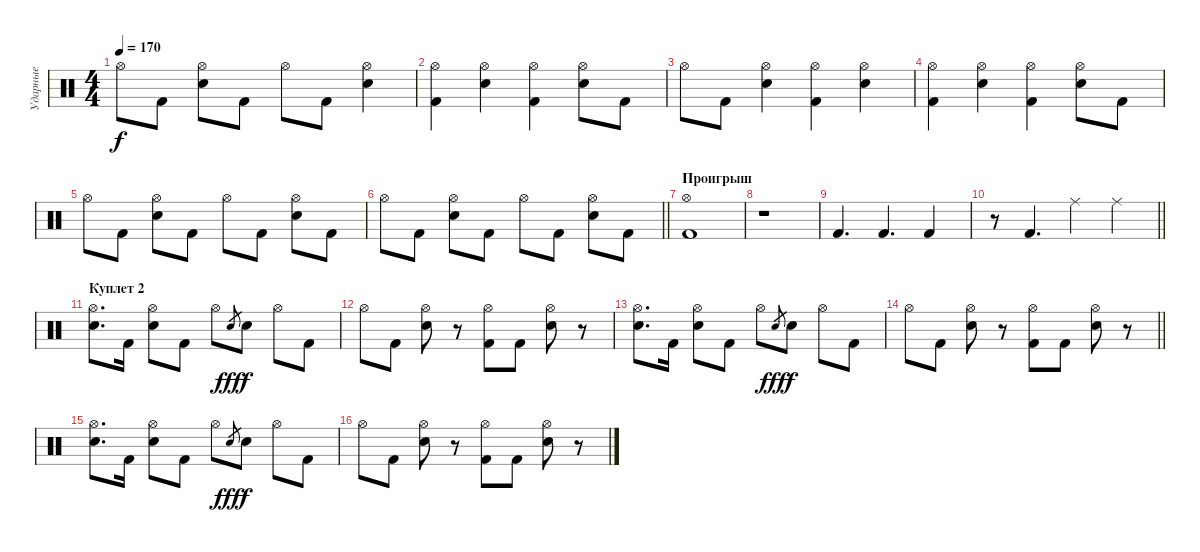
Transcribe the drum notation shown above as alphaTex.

\track ("Ударные" "Ударные") {instrument percussion}
\staff {score}
\articulation defaults
\ts (4 4)
\tempo 170
\clef neutral
\ks c "Hi-Hat (open)".8{dy f} "Kick (hit) 2".8
("Hi-Hat (open)" "Electric Snare (hit)").8 "Kick (hit) 2".8 "Hi-Hat (open)".8 "Kick (hit) 2".8 ("Hi-Hat (open)" "Electric Snare (hit)").4 |
("Hi-Hat (open)" "Kick (hit) 2").4 ("Hi-Hat (open)" "Electric Snare (hit)").4 ("Hi-Hat (open)" "Kick (hit) 2").4 ("Hi-Hat (open)" "Electric Snare (hit)").8 "Kick (hit) 2".8 |
"Hi-Hat (open)".8 "Kick (hit) 2".8 ("Hi-Hat (open)" "Electric Snare (hit)").4 ("Hi-Hat (open)" "Kick (hit) 2").4 ("Hi-Hat (open)" "Electric Snare (hit)").4 |
("Hi-Hat (open)" "Kick (hit) 2").4 ("Hi-Hat (open)" "Electric Snare (hit)").4 ("Hi-Hat (open)" "Kick (hit) 2").4 ("Hi-Hat (open)" "Electric Snare (hit)").8 "Kick (hit) 2".8 |
"Hi-Hat (open)".8 "Kick (hit) 2".8 ("Hi-Hat (open)" "Electric Snare (hit)").8 "Kick (hit) 2".8 "Hi-Hat (open)".8 "Kick (hit) 2".8 ("Hi-Hat (open)" "Electric Snare (hit)").8 "Kick (hit) 2".8 |
\barLineRight lightlight "Hi-Hat (open)".8 "Kick (hit) 2".8
("Hi-Hat (open)" "Electric Snare (hit)").8 "Kick (hit) 2".8 "Hi-Hat (open)".8 "Kick (hit) 2".8 ("Hi-Hat (open)" "Electric Snare (hit)").8 "Kick (hit) 2".8 |
\section ("" "Проигрыш")
("Hi-Hat (open)" "Kick (hit) 2").1 |
r.1 |
"Kick (hit) 2".4{d} "Kick (hit) 2".4{d} "Kick (hit) 2".4 |
\barLineRight lightlight
r.8 "Kick (hit) 2".4{d} "Ride (middle)".4 "Ride (middle)".4 |
\section ("" "Куплет 2")
("Electric Snare (hit)" "Hi-Hat (open)").8{d} "Kick (hit) 2".16 ("Electric Snare (hit)" "Hi-Hat (open)").8 "Kick (hit) 2".8 "Hi-Hat (open)".8 "Electric Snare (hit)"{x}.8{gr dy fff} "Electric Snare (hit)".8{dy f} "Hi-Hat (open)".8 "Kick (hit) 2".8 |
"Hi-Hat (open)".8 "Kick (hit) 2".8 ("Electric Snare (hit)" "Hi-Hat (open)").8 r.8 ("Kick (hit) 2" "Hi-Hat (open)").8 "Kick (hit) 2".8 ("Electric Snare (hit)" "Hi-Hat (open)").8 r.8 |
("Electric Snare (hit)" "Hi-Hat (open)").8{d} "Kick (hit) 2".16 ("Electric Snare (hit)" "Hi-Hat (open)").8 "Kick (hit) 2".8 "Hi-Hat (open)".8 "Electric Snare (hit)"{x}.8{gr dy fff} "Electric Snare (hit)".8{dy f} "Hi-Hat (open)".8 "Kick (hit) 2".8 |
\barLineRight lightlight "Hi-Hat (open)".8 "Kick (hit) 2".8
("Electric Snare (hit)" "Hi-Hat (open)").8 r.8 ("Kick (hit) 2" "Hi-Hat (open)").8 "Kick (hit) 2".8 ("Electric Snare (hit)" "Hi-Hat (open)").8 r.8 |
("Electric Snare (hit)" "Hi-Hat (open)").8{d} "Kick (hit) 2".16 ("Electric Snare (hit)" "Hi-Hat (open)").8 "Kick (hit) 2".8 "Hi-Hat (open)".8 "Electric Snare (hit)"{x}.8{gr dy fff} "Electric Snare (hit)".8{dy f} "Hi-Hat (open)".8 "Kick (hit) 2".8 |
"Hi-Hat (open)".8 "Kick (hit) 2".8 ("Electric Snare (hit)" "Hi-Hat (open)").8 r.8 ("Kick (hit) 2" "Hi-Hat (open)").8 "Kick (hit) 2".8 ("Electric Snare (hit)" "Hi-Hat (open)").8 r.8
